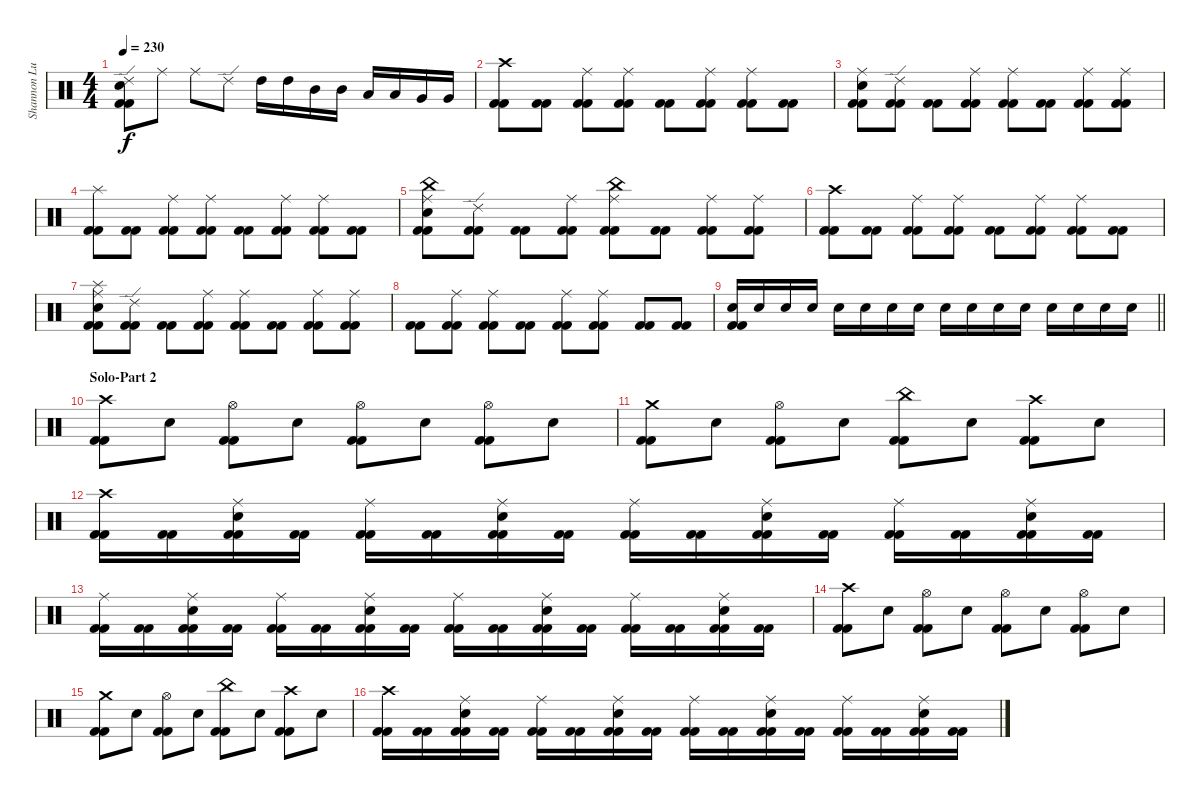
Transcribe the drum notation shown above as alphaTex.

\track ("Shannon Lucas" "Shannon Lu") {instrument percussion}
\staff {score}
\articulation defaults
\ts (4 4)
\tempo 230
\clef neutral
\ks c
("Ride (edge) 2" "Electric Snare (hit)" "Kick (hit) 2" "Kick (hit) 2").8{dy f} "Ride (middle)".8 "Ride (middle)".8 "Ride (edge) 2".8 "High Tom (hit)".16 "High Tom (hit)".16 "Mid Tom (hit)".16 "Mid Tom (hit)".16 "Low Tom (hit)".16 "Low Tom (hit)".16 "Very Low Tom (hit)".16 "Very Low Tom (hit)".16 |
("Crash high (hit)" "Kick (hit) 2" "Kick (hit) 2").8 ("Kick (hit) 2" "Kick (hit) 2").8 ("Ride (middle)" "Kick (hit) 2" "Kick (hit) 2").8 ("Ride (middle)" "Kick (hit) 2" "Kick (hit) 2").8 ("Kick (hit) 2" "Kick (hit) 2").8 ("Ride (middle)" "Kick (hit) 2" "Kick (hit) 2").8 ("Ride (middle)" "Kick (hit) 2" "Kick (hit) 2").8 ("Kick (hit) 2" "Kick (hit) 2").8 |
("Ride (middle)" "Electric Snare (hit)" "Kick (hit) 2" "Kick (hit) 2").8 ("Ride (edge) 2" "Kick (hit) 2" "Kick (hit) 2").8 ("Kick (hit) 2" "Kick (hit) 2").8 ("Ride (middle)" "Kick (hit) 2" "Kick (hit) 2").8 ("Ride (middle)" "Kick (hit) 2" "Kick (hit) 2").8 ("Kick (hit) 2" "Kick (hit) 2").8 ("Ride (middle)" "Kick (hit) 2" "Kick (hit) 2").8 ("Ride (middle)" "Kick (hit) 2" "Kick (hit) 2").8 |
("Splash (hit)" "Kick (hit) 2" "Kick (hit) 2").8 ("Kick (hit) 2" "Kick (hit) 2").8 ("Ride (middle)" "Kick (hit) 2" "Kick (hit) 2").8 ("Ride (middle)" "Kick (hit) 2" "Kick (hit) 2").8 ("Kick (hit) 2" "Kick (hit) 2").8 ("Ride (middle)" "Kick (hit) 2" "Kick (hit) 2").8 ("Ride (middle)" "Kick (hit) 2" "Kick (hit) 2").8 ("Kick (hit) 2" "Kick (hit) 2").8 |
("China (hit)" "Ride (middle)" "Electric Snare (hit)" "Kick (hit) 2" "Kick (hit) 2").8 ("Ride (edge) 2" "Kick (hit) 2" "Kick (hit) 2").8 ("Kick (hit) 2" "Kick (hit) 2").8 ("Ride (middle)" "Kick (hit) 2" "Kick (hit) 2").8 ("China (hit)" "Ride (middle)" "Kick (hit) 2" "Kick (hit) 2").8 ("Kick (hit) 2" "Kick (hit) 2").8 ("Ride (middle)" "Kick (hit) 2" "Kick (hit) 2").8 ("Ride (middle)" "Kick (hit) 2" "Kick (hit) 2").8 |
("Crash high (hit)" "Kick (hit) 2" "Kick (hit) 2").8 ("Kick (hit) 2" "Kick (hit) 2").8 ("Ride (middle)" "Kick (hit) 2" "Kick (hit) 2").8 ("Ride (middle)" "Kick (hit) 2" "Kick (hit) 2").8 ("Kick (hit) 2" "Kick (hit) 2").8 ("Ride (middle)" "Kick (hit) 2" "Kick (hit) 2").8 ("Ride (middle)" "Kick (hit) 2" "Kick (hit) 2").8 ("Kick (hit) 2" "Kick (hit) 2").8 |
("Splash (hit)" "Ride (middle)" "Electric Snare (hit)" "Kick (hit) 2" "Kick (hit) 2").8 ("Ride (edge) 2" "Kick (hit) 2" "Kick (hit) 2").8 ("Kick (hit) 2" "Kick (hit) 2").8 ("Ride (middle)" "Kick (hit) 2" "Kick (hit) 2").8 ("Ride (middle)" "Kick (hit) 2" "Kick (hit) 2").8 ("Kick (hit) 2" "Kick (hit) 2").8 ("Ride (middle)" "Kick (hit) 2" "Kick (hit) 2").8 ("Ride (middle)" "Kick (hit) 2" "Kick (hit) 2").8 |
("Kick (hit) 2" "Kick (hit) 2").8 ("Ride (middle)" "Kick (hit) 2" "Kick (hit) 2").8 ("Ride (middle)" "Kick (hit) 2" "Kick (hit) 2").8 ("Kick (hit) 2" "Kick (hit) 2").8 ("Ride (middle)" "Kick (hit) 2" "Kick (hit) 2").8 ("Ride (middle)" "Kick (hit) 2" "Kick (hit) 2").8 ("Kick (hit) 2" "Kick (hit) 2").8 ("Kick (hit) 2" "Kick (hit) 2").8 |
\barLineRight lightlight
("Electric Snare (hit)" "Kick (hit) 2" "Kick (hit) 2").16 "Electric Snare (hit)".16 "Electric Snare (hit)".16 "Electric Snare (hit)".16 "Electric Snare (hit)".16 "Electric Snare (hit)".16 "Electric Snare (hit)".16 "Electric Snare (hit)".16 "Electric Snare (hit)".16 "Electric Snare (hit)".16 "Electric Snare (hit)".16 "Electric Snare (hit)".16 "Electric Snare (hit)".16 "Electric Snare (hit)".16 "Electric Snare (hit)".16 "Electric Snare (hit)".16 |
\section ("" "Solo-Part 2")
("Crash high (hit)" "Kick (hit) 2" "Kick (hit) 2").8 "Electric Snare (hit)".8 ("Hi-Hat (open)" "Kick (hit) 2" "Kick (hit) 2").8 "Electric Snare (hit)".8 ("Hi-Hat (open)" "Kick (hit) 2" "Kick (hit) 2").8 "Electric Snare (hit)".8 ("Hi-Hat (open)" "Kick (hit) 2" "Kick (hit) 2").8 "Electric Snare (hit)".8 |
("Crash medium (hit)" "Kick (hit) 2" "Kick (hit) 2").8 "Electric Snare (hit)".8 ("Hi-Hat (open)" "Kick (hit) 2" "Kick (hit) 2").8 "Electric Snare (hit)".8 ("China (hit)" "Kick (hit) 2" "Kick (hit) 2").8 "Electric Snare (hit)".8 ("Crash high (hit)" "Kick (hit) 2" "Kick (hit) 2").8 "Electric Snare (hit)".8 |
("Crash high (hit)" "Kick (hit) 2" "Kick (hit) 2").16 ("Kick (hit) 2" "Kick (hit) 2").16 ("Ride (middle)" "Electric Snare (hit)" "Kick (hit) 2" "Kick (hit) 2").16 ("Kick (hit) 2" "Kick (hit) 2").16 ("Ride (middle)" "Kick (hit) 2" "Kick (hit) 2").16 ("Kick (hit) 2" "Kick (hit) 2").16 ("Ride (middle)" "Electric Snare (hit)" "Kick (hit) 2" "Kick (hit) 2").16 ("Kick (hit) 2" "Kick (hit) 2").16 ("Ride (middle)" "Kick (hit) 2" "Kick (hit) 2").16 ("Kick (hit) 2" "Kick (hit) 2").16 ("Ride (middle)" "Electric Snare (hit)" "Kick (hit) 2" "Kick (hit) 2").16 ("Kick (hit) 2" "Kick (hit) 2").16 ("Ride (middle)" "Kick (hit) 2" "Kick (hit) 2").16 ("Kick (hit) 2" "Kick (hit) 2").16 ("Ride (middle)" "Electric Snare (hit)" "Kick (hit) 2" "Kick (hit) 2").16 ("Kick (hit) 2" "Kick (hit) 2").16 |
("Ride (middle)" "Kick (hit) 2" "Kick (hit) 2").16 ("Kick (hit) 2" "Kick (hit) 2").16 ("Ride (middle)" "Electric Snare (hit)" "Kick (hit) 2" "Kick (hit) 2").16 ("Kick (hit) 2" "Kick (hit) 2").16 ("Ride (middle)" "Kick (hit) 2" "Kick (hit) 2").16 ("Kick (hit) 2" "Kick (hit) 2").16 ("Ride (middle)" "Electric Snare (hit)" "Kick (hit) 2" "Kick (hit) 2").16 ("Kick (hit) 2" "Kick (hit) 2").16 ("Ride (middle)" "Kick (hit) 2" "Kick (hit) 2").16 ("Kick (hit) 2" "Kick (hit) 2").16 ("Ride (middle)" "Electric Snare (hit)" "Kick (hit) 2" "Kick (hit) 2").16 ("Kick (hit) 2" "Kick (hit) 2").16 ("Ride (middle)" "Kick (hit) 2" "Kick (hit) 2").16 ("Kick (hit) 2" "Kick (hit) 2").16 ("Ride (middle)" "Electric Snare (hit)" "Kick (hit) 2" "Kick (hit) 2").16 ("Kick (hit) 2" "Kick (hit) 2").16 |
("Crash high (hit)" "Kick (hit) 2" "Kick (hit) 2").8 "Electric Snare (hit)".8 ("Hi-Hat (open)" "Kick (hit) 2" "Kick (hit) 2").8 "Electric Snare (hit)".8 ("Hi-Hat (open)" "Kick (hit) 2" "Kick (hit) 2").8 "Electric Snare (hit)".8 ("Hi-Hat (open)" "Kick (hit) 2" "Kick (hit) 2").8 "Electric Snare (hit)".8 |
("Crash medium (hit)" "Kick (hit) 2" "Kick (hit) 2").8 "Electric Snare (hit)".8 ("Hi-Hat (open)" "Kick (hit) 2" "Kick (hit) 2").8 "Electric Snare (hit)".8 ("China (hit)" "Kick (hit) 2" "Kick (hit) 2").8 "Electric Snare (hit)".8 ("Crash high (hit)" "Kick (hit) 2" "Kick (hit) 2").8 "Electric Snare (hit)".8 |
("Crash high (hit)" "Kick (hit) 2" "Kick (hit) 2").16 ("Kick (hit) 2" "Kick (hit) 2").16 ("Ride (middle)" "Electric Snare (hit)" "Kick (hit) 2" "Kick (hit) 2").16 ("Kick (hit) 2" "Kick (hit) 2").16 ("Ride (middle)" "Kick (hit) 2" "Kick (hit) 2").16 ("Kick (hit) 2" "Kick (hit) 2").16 ("Ride (middle)" "Electric Snare (hit)" "Kick (hit) 2" "Kick (hit) 2").16 ("Kick (hit) 2" "Kick (hit) 2").16 ("Ride (middle)" "Kick (hit) 2" "Kick (hit) 2").16 ("Kick (hit) 2" "Kick (hit) 2").16 ("Ride (middle)" "Electric Snare (hit)" "Kick (hit) 2" "Kick (hit) 2").16 ("Kick (hit) 2" "Kick (hit) 2").16 ("Ride (middle)" "Kick (hit) 2" "Kick (hit) 2").16 ("Kick (hit) 2" "Kick (hit) 2").16 ("Ride (middle)" "Electric Snare (hit)" "Kick (hit) 2" "Kick (hit) 2").16 ("Kick (hit) 2" "Kick (hit) 2").16
